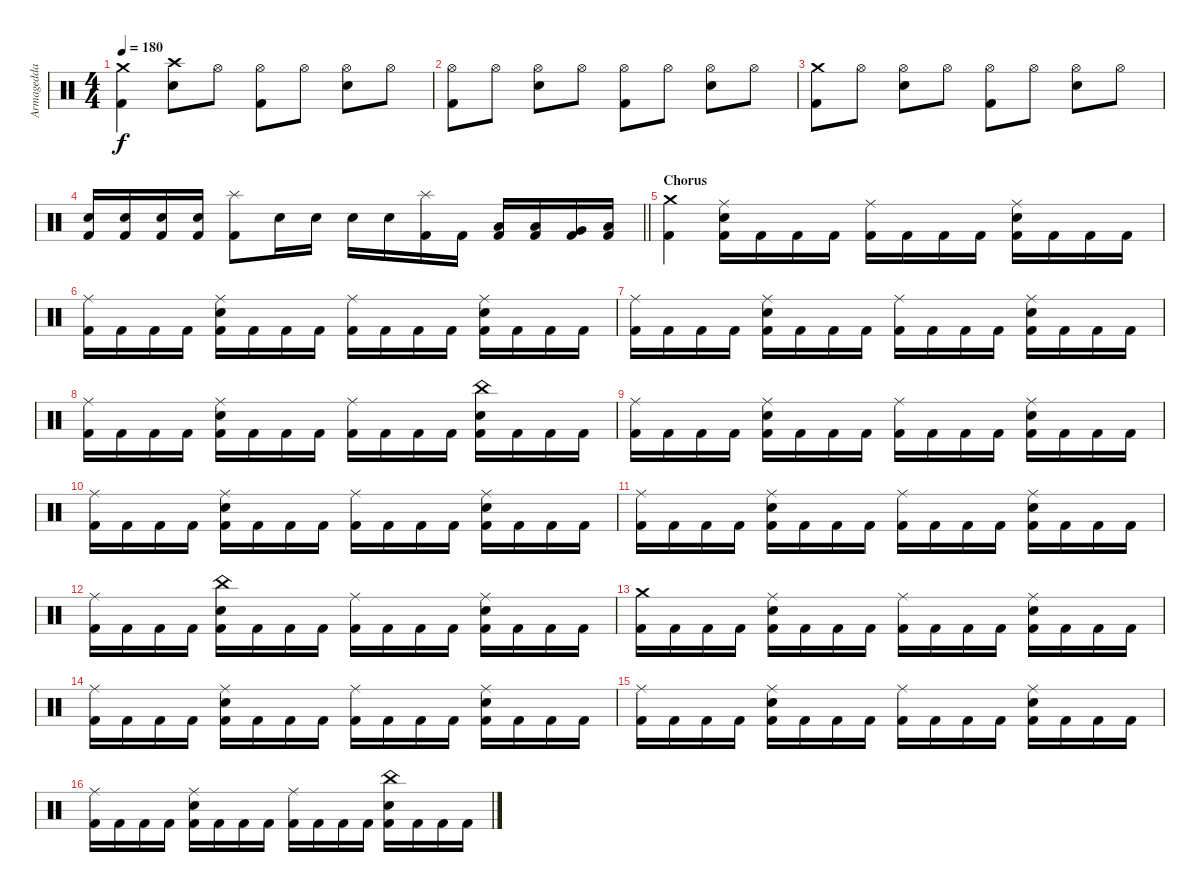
\track ("Armagedda" "Armagedda") {instrument percussion}
\staff {score}
\articulation defaults
\ts (4 4)
\tempo 180
\clef neutral
\ks c
("Crash medium (hit)" "Kick (hit) 2").4{dy f} ("Crash high (hit)" "Electric Snare (hit)").8 "Hi-Hat (open)".8 ("Hi-Hat (open)" "Kick (hit) 2").8 "Hi-Hat (open)".8 ("Hi-Hat (open)" "Electric Snare (hit)").8 "Hi-Hat (open)".8 |
("Hi-Hat (open)" "Kick (hit) 2").8 "Hi-Hat (open)".8 ("Hi-Hat (open)" "Electric Snare (hit)").8 "Hi-Hat (open)".8 ("Hi-Hat (open)" "Kick (hit) 2").8 "Hi-Hat (open)".8 ("Hi-Hat (open)" "Electric Snare (hit)").8 "Hi-Hat (open)".8 |
("Crash medium (hit)" "Kick (hit) 2").8 "Hi-Hat (open)".8 ("Hi-Hat (open)" "Electric Snare (hit)").8 "Hi-Hat (open)".8 ("Hi-Hat (open)" "Kick (hit) 2").8 "Hi-Hat (open)".8 ("Hi-Hat (open)" "Electric Snare (hit)").8 "Hi-Hat (open)".8 |
\barLineRight lightlight
("Electric Snare (hit)" "Kick (hit) 2").16 ("Electric Snare (hit)" "Kick (hit) 2").16 ("Electric Snare (hit)" "Kick (hit) 2").16 ("Electric Snare (hit)" "Kick (hit) 2").16 ("Splash (hit)" "Kick (hit) 2").8 "Electric Snare (hit)".16 "Electric Snare (hit)".16 "Electric Snare (hit)".16 "Electric Snare (hit)".16 ("Splash (hit)" "Kick (hit) 2").16 "Kick (hit) 2".16 ("Low Tom (hit)" "Kick (hit) 2").16 ("Low Tom (hit)" "Kick (hit) 2").16 ("Very Low Tom (hit)" "Kick (hit) 2").16 ("Low Floor Tom (hit)" "Kick (hit) 2").16 |
\section ("" "Chorus")
("Crash medium (hit)" "Kick (hit) 2").4 ("Ride (middle)" "Electric Snare (hit)" "Kick (hit) 2").16 "Kick (hit) 2".16 "Kick (hit) 2".16 "Kick (hit) 2".16 ("Ride (middle)" "Kick (hit) 2").16 "Kick (hit) 2".16 "Kick (hit) 2".16 "Kick (hit) 2".16 ("Ride (middle)" "Electric Snare (hit)" "Kick (hit) 2").16 "Kick (hit) 2".16 "Kick (hit) 2".16 "Kick (hit) 2".16 |
("Ride (middle)" "Kick (hit) 2").16 "Kick (hit) 2".16 "Kick (hit) 2".16 "Kick (hit) 2".16 ("Ride (middle)" "Electric Snare (hit)" "Kick (hit) 2").16 "Kick (hit) 2".16 "Kick (hit) 2".16 "Kick (hit) 2".16 ("Ride (middle)" "Kick (hit) 2").16 "Kick (hit) 2".16 "Kick (hit) 2".16 "Kick (hit) 2".16 ("Ride (middle)" "Electric Snare (hit)" "Kick (hit) 2").16 "Kick (hit) 2".16 "Kick (hit) 2".16 "Kick (hit) 2".16 |
("Ride (middle)" "Kick (hit) 2").16 "Kick (hit) 2".16 "Kick (hit) 2".16 "Kick (hit) 2".16 ("Ride (middle)" "Electric Snare (hit)" "Kick (hit) 2").16 "Kick (hit) 2".16 "Kick (hit) 2".16 "Kick (hit) 2".16 ("Ride (middle)" "Kick (hit) 2").16 "Kick (hit) 2".16 "Kick (hit) 2".16 "Kick (hit) 2".16 ("Ride (middle)" "Electric Snare (hit)" "Kick (hit) 2").16 "Kick (hit) 2".16 "Kick (hit) 2".16 "Kick (hit) 2".16 |
("Ride (middle)" "Kick (hit) 2").16 "Kick (hit) 2".16 "Kick (hit) 2".16 "Kick (hit) 2".16 ("Ride (middle)" "Electric Snare (hit)" "Kick (hit) 2").16 "Kick (hit) 2".16 "Kick (hit) 2".16 "Kick (hit) 2".16 ("Ride (middle)" "Kick (hit) 2").16 "Kick (hit) 2".16 "Kick (hit) 2".16 "Kick (hit) 2".16 ("China (hit)" "Electric Snare (hit)" "Kick (hit) 2").16 "Kick (hit) 2".16 "Kick (hit) 2".16 "Kick (hit) 2".16 |
("Ride (middle)" "Kick (hit) 2").16 "Kick (hit) 2".16 "Kick (hit) 2".16 "Kick (hit) 2".16 ("Ride (middle)" "Electric Snare (hit)" "Kick (hit) 2").16 "Kick (hit) 2".16 "Kick (hit) 2".16 "Kick (hit) 2".16 ("Ride (middle)" "Kick (hit) 2").16 "Kick (hit) 2".16 "Kick (hit) 2".16 "Kick (hit) 2".16 ("Ride (middle)" "Electric Snare (hit)" "Kick (hit) 2").16 "Kick (hit) 2".16 "Kick (hit) 2".16 "Kick (hit) 2".16 |
("Ride (middle)" "Kick (hit) 2").16 "Kick (hit) 2".16 "Kick (hit) 2".16 "Kick (hit) 2".16 ("Ride (middle)" "Electric Snare (hit)" "Kick (hit) 2").16 "Kick (hit) 2".16 "Kick (hit) 2".16 "Kick (hit) 2".16 ("Ride (middle)" "Kick (hit) 2").16 "Kick (hit) 2".16 "Kick (hit) 2".16 "Kick (hit) 2".16 ("Ride (middle)" "Electric Snare (hit)" "Kick (hit) 2").16 "Kick (hit) 2".16 "Kick (hit) 2".16 "Kick (hit) 2".16 |
("Ride (middle)" "Kick (hit) 2").16 "Kick (hit) 2".16 "Kick (hit) 2".16 "Kick (hit) 2".16 ("Ride (middle)" "Electric Snare (hit)" "Kick (hit) 2").16 "Kick (hit) 2".16 "Kick (hit) 2".16 "Kick (hit) 2".16 ("Ride (middle)" "Kick (hit) 2").16 "Kick (hit) 2".16 "Kick (hit) 2".16 "Kick (hit) 2".16 ("Ride (middle)" "Electric Snare (hit)" "Kick (hit) 2").16 "Kick (hit) 2".16 "Kick (hit) 2".16 "Kick (hit) 2".16 |
("Ride (middle)" "Kick (hit) 2").16 "Kick (hit) 2".16 "Kick (hit) 2".16 "Kick (hit) 2".16 ("China (hit)" "Electric Snare (hit)" "Kick (hit) 2").16 "Kick (hit) 2".16 "Kick (hit) 2".16 "Kick (hit) 2".16 ("Ride (middle)" "Kick (hit) 2").16 "Kick (hit) 2".16 "Kick (hit) 2".16 "Kick (hit) 2".16 ("Ride (middle)" "Electric Snare (hit)" "Kick (hit) 2").16 "Kick (hit) 2".16 "Kick (hit) 2".16 "Kick (hit) 2".16 |
("Crash medium (hit)" "Kick (hit) 2").16 "Kick (hit) 2".16 "Kick (hit) 2".16 "Kick (hit) 2".16 ("Ride (middle)" "Electric Snare (hit)" "Kick (hit) 2").16 "Kick (hit) 2".16 "Kick (hit) 2".16 "Kick (hit) 2".16 ("Ride (middle)" "Kick (hit) 2").16 "Kick (hit) 2".16 "Kick (hit) 2".16 "Kick (hit) 2".16 ("Ride (middle)" "Electric Snare (hit)" "Kick (hit) 2").16 "Kick (hit) 2".16 "Kick (hit) 2".16 "Kick (hit) 2".16 |
("Ride (middle)" "Kick (hit) 2").16 "Kick (hit) 2".16 "Kick (hit) 2".16 "Kick (hit) 2".16 ("Ride (middle)" "Electric Snare (hit)" "Kick (hit) 2").16 "Kick (hit) 2".16 "Kick (hit) 2".16 "Kick (hit) 2".16 ("Ride (middle)" "Kick (hit) 2").16 "Kick (hit) 2".16 "Kick (hit) 2".16 "Kick (hit) 2".16 ("Ride (middle)" "Electric Snare (hit)" "Kick (hit) 2").16 "Kick (hit) 2".16 "Kick (hit) 2".16 "Kick (hit) 2".16 |
("Ride (middle)" "Kick (hit) 2").16 "Kick (hit) 2".16 "Kick (hit) 2".16 "Kick (hit) 2".16 ("Ride (middle)" "Electric Snare (hit)" "Kick (hit) 2").16 "Kick (hit) 2".16 "Kick (hit) 2".16 "Kick (hit) 2".16 ("Ride (middle)" "Kick (hit) 2").16 "Kick (hit) 2".16 "Kick (hit) 2".16 "Kick (hit) 2".16 ("Ride (middle)" "Electric Snare (hit)" "Kick (hit) 2").16 "Kick (hit) 2".16 "Kick (hit) 2".16 "Kick (hit) 2".16 |
("Ride (middle)" "Kick (hit) 2").16 "Kick (hit) 2".16 "Kick (hit) 2".16 "Kick (hit) 2".16 ("Ride (middle)" "Electric Snare (hit)" "Kick (hit) 2").16 "Kick (hit) 2".16 "Kick (hit) 2".16 "Kick (hit) 2".16 ("Ride (middle)" "Kick (hit) 2").16 "Kick (hit) 2".16 "Kick (hit) 2".16 "Kick (hit) 2".16 ("China (hit)" "Electric Snare (hit)" "Kick (hit) 2").16 "Kick (hit) 2".16 "Kick (hit) 2".16 "Kick (hit) 2".16
